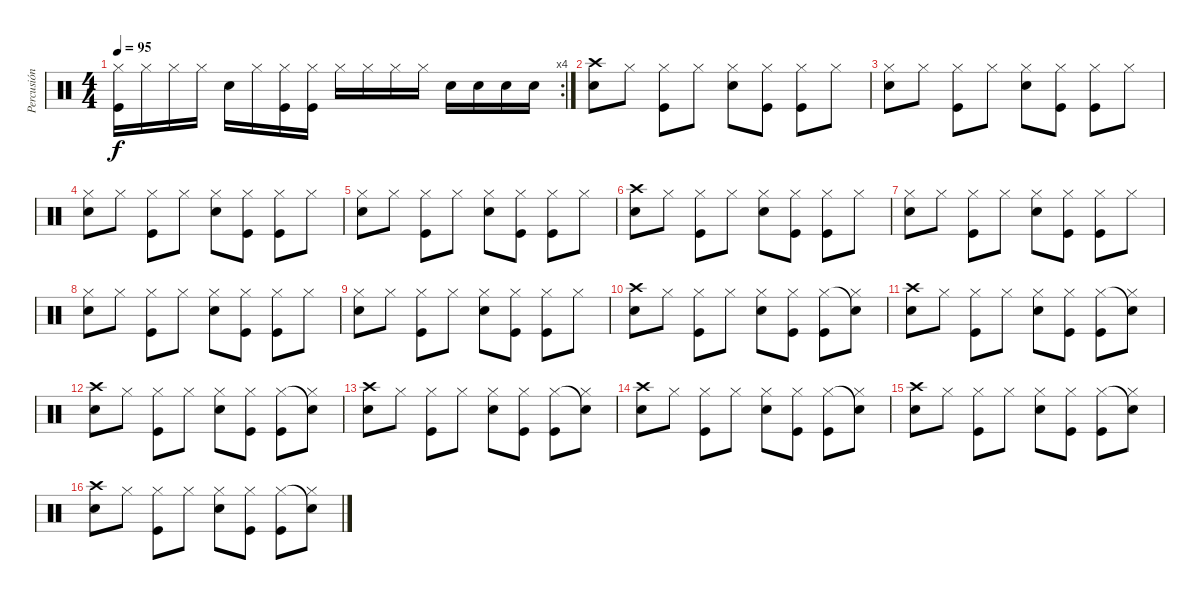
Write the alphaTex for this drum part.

\track ("Percusión" "Percusión") {instrument percussion}
\staff {score}
\articulation defaults
\rc 4
\ts (4 4)
\tempo 95
\clef neutral
\ks c
("Hi-Hat (closed)" "Kick (hit)").16{dy f} "Hi-Hat (closed)".16 "Hi-Hat (closed)".16 "Hi-Hat (closed)".16 "Snare (hit) 2".16 "Hi-Hat (closed)".16 ("Hi-Hat (closed)" "Kick (hit)").16 ("Hi-Hat (closed)" "Kick (hit)").16 "Hi-Hat (closed)".16 "Hi-Hat (closed)".16 "Hi-Hat (closed)".16 "Hi-Hat (closed)".16 "Snare (hit) 2".16 "Snare (hit) 2".16 "Snare (hit) 2".16 "Snare (hit) 2".16 |
("Crash high (hit)" "Snare (hit) 2").8 "Hi-Hat (closed)".8 ("Hi-Hat (closed)" "Kick (hit)").8 "Hi-Hat (closed)".8 ("Hi-Hat (closed)" "Snare (hit) 2").8 ("Hi-Hat (closed)" "Kick (hit)").8 ("Hi-Hat (closed)" "Kick (hit)").8 "Hi-Hat (closed)".8 |
("Hi-Hat (closed)" "Snare (hit) 2").8 "Hi-Hat (closed)".8 ("Hi-Hat (closed)" "Kick (hit)").8 "Hi-Hat (closed)".8 ("Hi-Hat (closed)" "Snare (hit) 2").8 ("Hi-Hat (closed)" "Kick (hit)").8 ("Hi-Hat (closed)" "Kick (hit)").8 "Hi-Hat (closed)".8 |
("Hi-Hat (closed)" "Snare (hit) 2").8 "Hi-Hat (closed)".8 ("Hi-Hat (closed)" "Kick (hit)").8 "Hi-Hat (closed)".8 ("Hi-Hat (closed)" "Snare (hit) 2").8 ("Hi-Hat (closed)" "Kick (hit)").8 ("Hi-Hat (closed)" "Kick (hit)").8 "Hi-Hat (closed)".8 |
("Hi-Hat (closed)" "Snare (hit) 2").8 "Hi-Hat (closed)".8 ("Hi-Hat (closed)" "Kick (hit)").8 "Hi-Hat (closed)".8 ("Hi-Hat (closed)" "Snare (hit) 2").8 ("Hi-Hat (closed)" "Kick (hit)").8 ("Hi-Hat (closed)" "Kick (hit)").8 "Hi-Hat (closed)".8 |
("Crash high (hit)" "Snare (hit) 2").8 "Hi-Hat (closed)".8 ("Hi-Hat (closed)" "Kick (hit)").8 "Hi-Hat (closed)".8 ("Hi-Hat (closed)" "Snare (hit) 2").8 ("Hi-Hat (closed)" "Kick (hit)").8 ("Hi-Hat (closed)" "Kick (hit)").8 "Hi-Hat (closed)".8 |
("Hi-Hat (closed)" "Snare (hit) 2").8 "Hi-Hat (closed)".8 ("Hi-Hat (closed)" "Kick (hit)").8 "Hi-Hat (closed)".8 ("Hi-Hat (closed)" "Snare (hit) 2").8 ("Hi-Hat (closed)" "Kick (hit)").8 ("Hi-Hat (closed)" "Kick (hit)").8 "Hi-Hat (closed)".8 |
("Hi-Hat (closed)" "Snare (hit) 2").8 "Hi-Hat (closed)".8 ("Hi-Hat (closed)" "Kick (hit)").8 "Hi-Hat (closed)".8 ("Hi-Hat (closed)" "Snare (hit) 2").8 ("Hi-Hat (closed)" "Kick (hit)").8 ("Hi-Hat (closed)" "Kick (hit)").8 "Hi-Hat (closed)".8 |
("Hi-Hat (closed)" "Snare (hit) 2").8 "Hi-Hat (closed)".8 ("Hi-Hat (closed)" "Kick (hit)").8 "Hi-Hat (closed)".8 ("Hi-Hat (closed)" "Snare (hit) 2").8 ("Hi-Hat (closed)" "Kick (hit)").8 ("Hi-Hat (closed)" "Kick (hit)").8 "Hi-Hat (closed)".8 |
("Crash high (hit)" "Snare (hit) 2").8 "Hi-Hat (closed)".8 ("Hi-Hat (closed)" "Kick (hit)").8 "Hi-Hat (closed)".8 ("Hi-Hat (closed)" "Snare (hit) 2").8 ("Hi-Hat (closed)" "Kick (hit)").8 ("Hi-Hat (closed)" "Kick (hit)").8 ("Snare (hit)"{t} "Hi-Hat (closed)").8 |
("Crash high (hit)" "Snare (hit) 2").8 "Hi-Hat (closed)".8 ("Hi-Hat (closed)" "Kick (hit)").8 "Hi-Hat (closed)".8 ("Hi-Hat (closed)" "Snare (hit) 2").8 ("Hi-Hat (closed)" "Kick (hit)").8 ("Hi-Hat (closed)" "Kick (hit)").8 ("Snare (hit)"{t} "Hi-Hat (closed)").8 |
("Crash high (hit)" "Snare (hit) 2").8 "Hi-Hat (closed)".8 ("Hi-Hat (closed)" "Kick (hit)").8 "Hi-Hat (closed)".8 ("Hi-Hat (closed)" "Snare (hit) 2").8 ("Hi-Hat (closed)" "Kick (hit)").8 ("Hi-Hat (closed)" "Kick (hit)").8 ("Snare (hit)"{t} "Hi-Hat (closed)").8 |
("Crash high (hit)" "Snare (hit) 2").8 "Hi-Hat (closed)".8 ("Hi-Hat (closed)" "Kick (hit)").8 "Hi-Hat (closed)".8 ("Hi-Hat (closed)" "Snare (hit) 2").8 ("Hi-Hat (closed)" "Kick (hit)").8 ("Hi-Hat (closed)" "Kick (hit)").8 ("Snare (hit)"{t} "Hi-Hat (closed)").8 |
("Crash high (hit)" "Snare (hit) 2").8 "Hi-Hat (closed)".8 ("Hi-Hat (closed)" "Kick (hit)").8 "Hi-Hat (closed)".8 ("Hi-Hat (closed)" "Snare (hit) 2").8 ("Hi-Hat (closed)" "Kick (hit)").8 ("Hi-Hat (closed)" "Kick (hit)").8 ("Snare (hit)"{t} "Hi-Hat (closed)").8 |
("Crash high (hit)" "Snare (hit) 2").8 "Hi-Hat (closed)".8 ("Hi-Hat (closed)" "Kick (hit)").8 "Hi-Hat (closed)".8 ("Hi-Hat (closed)" "Snare (hit) 2").8 ("Hi-Hat (closed)" "Kick (hit)").8 ("Hi-Hat (closed)" "Kick (hit)").8 ("Snare (hit)"{t} "Hi-Hat (closed)").8 |
("Crash high (hit)" "Snare (hit) 2").8 "Hi-Hat (closed)".8 ("Hi-Hat (closed)" "Kick (hit)").8 "Hi-Hat (closed)".8 ("Hi-Hat (closed)" "Snare (hit) 2").8 ("Hi-Hat (closed)" "Kick (hit)").8 ("Hi-Hat (closed)" "Kick (hit)").8 ("Snare (hit)"{t} "Hi-Hat (closed)").8
